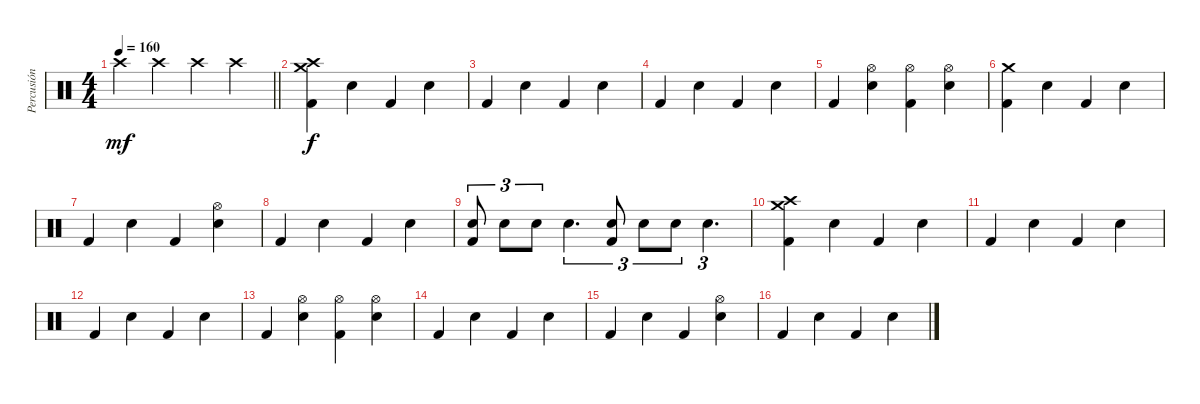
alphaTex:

\track ("Percusión" "Percusión") {instrument percussion}
\staff {score}
\articulation defaults
\ts (4 4)
\tempo 160
\clef neutral
\barLineRight lightlight
\ks c "Crash high (hit)".4{dy mf} "Crash high (hit)".4 "Crash high (hit)".4 "Crash high (hit)".4
|
("Crash high (hit)" "Crash medium (hit)" "Kick (hit) 2").4{dy f} "Electric Snare (hit)".4 "Kick (hit) 2".4 "Electric Snare (hit)".4 |
"Kick (hit) 2".4 "Electric Snare (hit)".4 "Kick (hit) 2".4 "Electric Snare (hit)".4 |
"Kick (hit) 2".4 "Electric Snare (hit)".4 "Kick (hit) 2".4 "Electric Snare (hit)".4 |
"Kick (hit) 2".4 ("Hi-Hat (open)" "Electric Snare (hit)").4 ("Hi-Hat (open)" "Kick (hit) 2").4 ("Hi-Hat (open)" "Electric Snare (hit)").4 |
("Crash medium (hit)" "Kick (hit) 2").4 "Electric Snare (hit)".4 "Kick (hit) 2".4 "Electric Snare (hit)".4 |
"Kick (hit) 2".4 "Electric Snare (hit)".4 "Kick (hit) 2".4 ("Hi-Hat (open)" "Electric Snare (hit)").4 |
"Kick (hit) 2".4 "Electric Snare (hit)".4 "Kick (hit) 2".4 "Electric Snare (hit)".4 |
("Electric Snare (hit)" "Kick (hit) 2").8{tu (3 2) beam split} "Electric Snare (hit)".8{tu (3 2)} "Electric Snare (hit)".8{tu (3 2)} "Electric Snare (hit)".4{d tu (3 2)} ("Electric Snare (hit)" "Kick (hit) 2").8{tu (3 2) beam split} "Electric Snare (hit)".8{tu (3 2)} "Electric Snare (hit)".8{tu (3 2)} "Electric Snare (hit)".4{d tu (3 2)} |
("Crash high (hit)" "Crash medium (hit)" "Kick (hit) 2").4 "Electric Snare (hit)".4 "Kick (hit) 2".4 "Electric Snare (hit)".4 |
"Kick (hit) 2".4 "Electric Snare (hit)".4 "Kick (hit) 2".4 "Electric Snare (hit)".4 |
"Kick (hit) 2".4 "Electric Snare (hit)".4 "Kick (hit) 2".4 "Electric Snare (hit)".4 |
"Kick (hit) 2".4 ("Hi-Hat (open)" "Electric Snare (hit)").4 ("Hi-Hat (open)" "Kick (hit) 2").4 ("Hi-Hat (open)" "Electric Snare (hit)").4 |
"Kick (hit) 2".4 "Electric Snare (hit)".4 "Kick (hit) 2".4 "Electric Snare (hit)".4 |
"Kick (hit) 2".4 "Electric Snare (hit)".4 "Kick (hit) 2".4 ("Hi-Hat (open)" "Electric Snare (hit)").4 |
"Kick (hit) 2".4 "Electric Snare (hit)".4 "Kick (hit) 2".4 "Electric Snare (hit)".4
